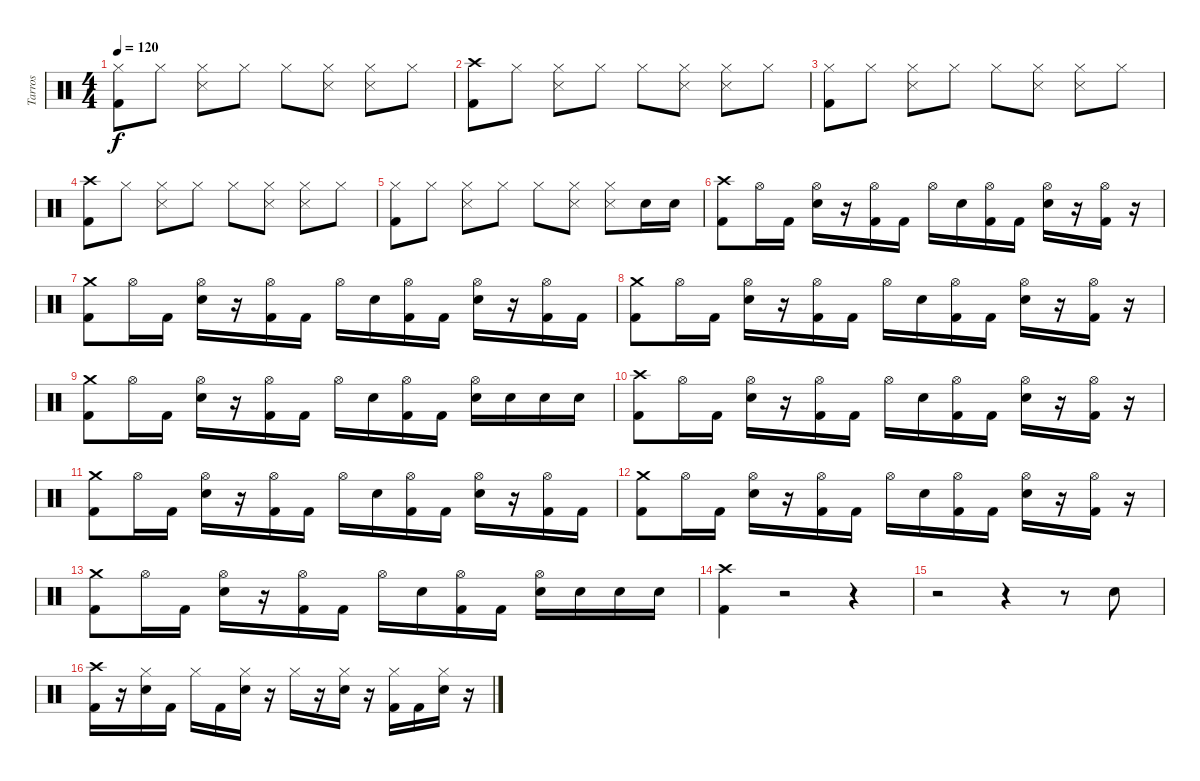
\track ("Tarros" "Tarros") {instrument percussion}
\staff {score}
\articulation defaults
\ts (4 4)
\tempo 120
\clef neutral
\ks c
("Hi-Hat (closed)" "Kick (hit) 2").8{dy f} "Hi-Hat (closed)".8 ("Hi-Hat (closed)" "Metronome (hit)").8 "Hi-Hat (closed)".8 "Hi-Hat (closed)".8 ("Hi-Hat (closed)" "Metronome (hit)").8 ("Hi-Hat (closed)" "Metronome (hit)").8 "Hi-Hat (closed)".8 |
("Crash high (hit)" "Kick (hit) 2").8 "Hi-Hat (closed)".8 ("Hi-Hat (closed)" "Metronome (hit)").8 "Hi-Hat (closed)".8 "Hi-Hat (closed)".8 ("Hi-Hat (closed)" "Metronome (hit)").8 ("Hi-Hat (closed)" "Metronome (hit)").8 "Hi-Hat (closed)".8 |
("Hi-Hat (closed)" "Kick (hit) 2").8 "Hi-Hat (closed)".8 ("Hi-Hat (closed)" "Metronome (hit)").8 "Hi-Hat (closed)".8 "Hi-Hat (closed)".8 ("Hi-Hat (closed)" "Metronome (hit)").8 ("Hi-Hat (closed)" "Metronome (hit)").8 "Hi-Hat (closed)".8 |
("Crash high (hit)" "Kick (hit) 2").8 "Hi-Hat (closed)".8 ("Hi-Hat (closed)" "Metronome (hit)").8 "Hi-Hat (closed)".8 "Hi-Hat (closed)".8 ("Hi-Hat (closed)" "Metronome (hit)").8 ("Hi-Hat (closed)" "Metronome (hit)").8 "Hi-Hat (closed)".8 |
("Hi-Hat (closed)" "Kick (hit) 2").8 "Hi-Hat (closed)".8 ("Hi-Hat (closed)" "Metronome (hit)").8 "Hi-Hat (closed)".8 "Hi-Hat (closed)".8 ("Hi-Hat (closed)" "Metronome (hit)").8 ("Hi-Hat (closed)" "Metronome (hit)").8 "Electric Snare (hit)".16 "Electric Snare (hit)".16 |
("Crash high (hit)" "Kick (hit) 2").8 "Hi-Hat (open)".16 "Kick (hit) 2".16 ("Hi-Hat (open)" "Electric Snare (hit)").16 r.16 ("Hi-Hat (open)" "Kick (hit) 2").16 "Kick (hit) 2".16 "Hi-Hat (open)".16 "Electric Snare (hit)".16 ("Hi-Hat (open)" "Kick (hit) 2").16 "Kick (hit) 2".16 ("Hi-Hat (open)" "Electric Snare (hit)").16 r.16 ("Hi-Hat (open)" "Kick (hit) 2").16 r.16 |
("Crash medium (hit)" "Kick (hit) 2").8 "Hi-Hat (open)".16 "Kick (hit) 2".16 ("Hi-Hat (open)" "Electric Snare (hit)").16 r.16 ("Hi-Hat (open)" "Kick (hit) 2").16 "Kick (hit) 2".16 "Hi-Hat (open)".16 "Electric Snare (hit)".16 ("Hi-Hat (open)" "Kick (hit) 2").16 "Kick (hit) 2".16 ("Hi-Hat (open)" "Electric Snare (hit)").16 r.16 ("Hi-Hat (open)" "Kick (hit) 2").16 "Kick (hit) 2".16 |
("Crash medium (hit)" "Kick (hit) 2").8 "Hi-Hat (open)".16 "Kick (hit) 2".16 ("Hi-Hat (open)" "Electric Snare (hit)").16 r.16 ("Hi-Hat (open)" "Kick (hit) 2").16 "Kick (hit) 2".16 "Hi-Hat (open)".16 "Electric Snare (hit)".16 ("Hi-Hat (open)" "Kick (hit) 2").16 "Kick (hit) 2".16 ("Hi-Hat (open)" "Electric Snare (hit)").16 r.16 ("Hi-Hat (open)" "Kick (hit) 2").16 r.16 |
("Crash medium (hit)" "Kick (hit) 2").8 "Hi-Hat (open)".16 "Kick (hit) 2".16 ("Hi-Hat (open)" "Electric Snare (hit)").16 r.16 ("Hi-Hat (open)" "Kick (hit) 2").16 "Kick (hit) 2".16 "Hi-Hat (open)".16 "Electric Snare (hit)".16 ("Hi-Hat (open)" "Kick (hit) 2").16 "Kick (hit) 2".16 ("Hi-Hat (open)" "Electric Snare (hit)").16 "Electric Snare (hit)".16 "Electric Snare (hit)".16 "Electric Snare (hit)".16 |
("Crash high (hit)" "Kick (hit) 2").8 "Hi-Hat (open)".16 "Kick (hit) 2".16 ("Hi-Hat (open)" "Electric Snare (hit)").16 r.16 ("Hi-Hat (open)" "Kick (hit) 2").16 "Kick (hit) 2".16 "Hi-Hat (open)".16 "Electric Snare (hit)".16 ("Hi-Hat (open)" "Kick (hit) 2").16 "Kick (hit) 2".16 ("Hi-Hat (open)" "Electric Snare (hit)").16 r.16 ("Hi-Hat (open)" "Kick (hit) 2").16 r.16 |
("Crash medium (hit)" "Kick (hit) 2").8 "Hi-Hat (open)".16 "Kick (hit) 2".16 ("Hi-Hat (open)" "Electric Snare (hit)").16 r.16 ("Hi-Hat (open)" "Kick (hit) 2").16 "Kick (hit) 2".16 "Hi-Hat (open)".16 "Electric Snare (hit)".16 ("Hi-Hat (open)" "Kick (hit) 2").16 "Kick (hit) 2".16 ("Hi-Hat (open)" "Electric Snare (hit)").16 r.16 ("Hi-Hat (open)" "Kick (hit) 2").16 "Kick (hit) 2".16 |
("Crash medium (hit)" "Kick (hit) 2").8 "Hi-Hat (open)".16 "Kick (hit) 2".16 ("Hi-Hat (open)" "Electric Snare (hit)").16 r.16 ("Hi-Hat (open)" "Kick (hit) 2").16 "Kick (hit) 2".16 "Hi-Hat (open)".16 "Electric Snare (hit)".16 ("Hi-Hat (open)" "Kick (hit) 2").16 "Kick (hit) 2".16 ("Hi-Hat (open)" "Electric Snare (hit)").16 r.16 ("Hi-Hat (open)" "Kick (hit) 2").16 r.16 |
("Crash medium (hit)" "Kick (hit) 2").8 "Hi-Hat (open)".16 "Kick (hit) 2".16 ("Hi-Hat (open)" "Electric Snare (hit)").16 r.16 ("Hi-Hat (open)" "Kick (hit) 2").16 "Kick (hit) 2".16 "Hi-Hat (open)".16 "Electric Snare (hit)".16 ("Hi-Hat (open)" "Kick (hit) 2").16 "Kick (hit) 2".16 ("Hi-Hat (open)" "Electric Snare (hit)").16 "Electric Snare (hit)".16 "Electric Snare (hit)".16 "Electric Snare (hit)".16 |
("Crash high (hit)" "Kick (hit) 2").4 r.2 r.4 |
r.2 r.4 r.8 "Electric Snare (hit)".8 |
("Crash high (hit)" "Kick (hit) 2").16 r.16 ("Hi-Hat (closed)" "Electric Snare (hit)").16 "Kick (hit) 2".16 "Hi-Hat (closed)".16 "Kick (hit) 2".16 ("Hi-Hat (closed)" "Electric Snare (hit)").16 r.16 "Hi-Hat (closed)".16 r.16 ("Hi-Hat (closed)" "Electric Snare (hit)").16 r.16 ("Hi-Hat (closed)" "Kick (hit) 2").16 "Kick (hit) 2".16 ("Hi-Hat (closed)" "Electric Snare (hit)").16 r.16
